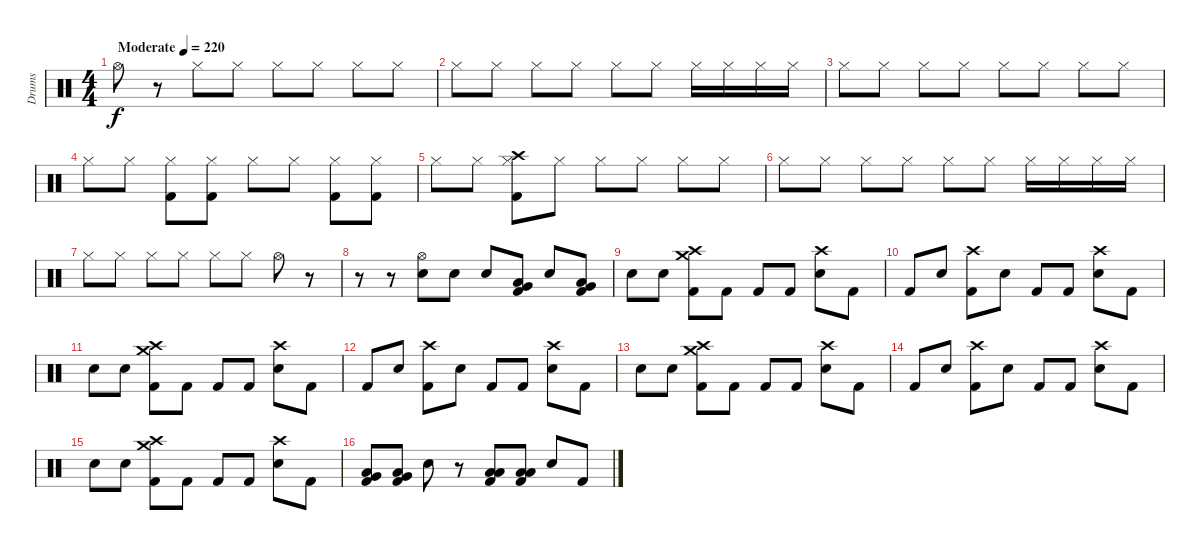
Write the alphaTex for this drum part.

\track ("Drums" "Drums") {instrument percussion}
\staff {score}
\articulation defaults
\ts (4 4)
\tempo (220 "Moderate")
\clef neutral
\ks c "Hi-Hat (open)".8{dy f}
r.8 "Hi-Hat (closed)".8 "Hi-Hat (closed)".8 "Hi-Hat (closed)".8 "Hi-Hat (closed)".8 "Hi-Hat (closed)".8 "Hi-Hat (closed)".8 |
"Hi-Hat (closed)".8 "Hi-Hat (closed)".8 "Hi-Hat (closed)".8 "Hi-Hat (closed)".8 "Hi-Hat (closed)".8 "Hi-Hat (closed)".8 "Hi-Hat (closed)".16 "Hi-Hat (closed)".16 "Hi-Hat (closed)".16 "Hi-Hat (closed)".16 |
"Hi-Hat (closed)".8 "Hi-Hat (closed)".8 "Hi-Hat (closed)".8 "Hi-Hat (closed)".8 "Hi-Hat (closed)".8 "Hi-Hat (closed)".8 "Hi-Hat (closed)".8 "Hi-Hat (closed)".8 |
"Hi-Hat (closed)".8 "Hi-Hat (closed)".8 ("Hi-Hat (closed)" "Kick (hit) 2").8 ("Hi-Hat (closed)" "Kick (hit) 2").8 "Hi-Hat (closed)".8 "Hi-Hat (closed)".8 ("Hi-Hat (closed)" "Kick (hit) 2").8 ("Hi-Hat (closed)" "Kick (hit) 2").8 |
"Hi-Hat (closed)".8 "Hi-Hat (closed)".8 ("Crash high (hit)" "Hi-Hat (closed)" "Kick (hit) 2").8 "Hi-Hat (closed)".8 "Hi-Hat (closed)".8 "Hi-Hat (closed)".8 "Hi-Hat (closed)".8 "Hi-Hat (closed)".8 |
"Hi-Hat (closed)".8 "Hi-Hat (closed)".8 "Hi-Hat (closed)".8 "Hi-Hat (closed)".8 "Hi-Hat (closed)".8 "Hi-Hat (closed)".8 "Hi-Hat (closed)".16 "Hi-Hat (closed)".16 "Hi-Hat (closed)".16 "Hi-Hat (closed)".16 |
"Hi-Hat (closed)".8 "Hi-Hat (closed)".8 "Hi-Hat (closed)".8 "Hi-Hat (closed)".8 "Hi-Hat (closed)".8 "Hi-Hat (closed)".8 "Hi-Hat (open)".8 r.8 |
r.8 r.8 ("Hi-Hat (open)" "Electric Snare (hit)").8 "Electric Snare (hit)".8 "Electric Snare (hit)".8 ("Kick (hit) 2" "Low Floor Tom (hit)" "Very Low Tom (hit)").8 "Electric Snare (hit)".8 ("Kick (hit) 2" "Low Floor Tom (hit)" "Very Low Tom (hit)").8 |
"Electric Snare (hit)".8 "Electric Snare (hit)".8 ("Crash high (hit)" "Crash medium (hit)" "Kick (hit) 2").8 "Kick (hit) 2".8 "Kick (hit) 2".8 "Kick (hit) 2".8 ("Crash high (hit)" "Electric Snare (hit)").8 "Kick (hit) 2".8 |
"Kick (hit) 2".8 "Electric Snare (hit)".8 ("Crash high (hit)" "Kick (hit) 2").8 "Electric Snare (hit)".8 "Kick (hit) 2".8 "Kick (hit) 2".8 ("Crash high (hit)" "Electric Snare (hit)").8 "Kick (hit) 2".8 |
"Electric Snare (hit)".8 "Electric Snare (hit)".8 ("Crash high (hit)" "Crash medium (hit)" "Kick (hit) 2").8 "Kick (hit) 2".8 "Kick (hit) 2".8 "Kick (hit) 2".8 ("Crash high (hit)" "Electric Snare (hit)").8 "Kick (hit) 2".8 |
"Kick (hit) 2".8 "Electric Snare (hit)".8 ("Crash high (hit)" "Kick (hit) 2").8 "Electric Snare (hit)".8 "Kick (hit) 2".8 "Kick (hit) 2".8 ("Crash high (hit)" "Electric Snare (hit)").8 "Kick (hit) 2".8 |
"Electric Snare (hit)".8 "Electric Snare (hit)".8 ("Crash high (hit)" "Crash medium (hit)" "Kick (hit) 2").8 "Kick (hit) 2".8 "Kick (hit) 2".8 "Kick (hit) 2".8 ("Crash high (hit)" "Electric Snare (hit)").8 "Kick (hit) 2".8 |
"Kick (hit) 2".8 "Electric Snare (hit)".8 ("Crash high (hit)" "Kick (hit) 2").8 "Electric Snare (hit)".8 "Kick (hit) 2".8 "Kick (hit) 2".8 ("Crash high (hit)" "Electric Snare (hit)").8 "Kick (hit) 2".8 |
"Electric Snare (hit)".8 "Electric Snare (hit)".8 ("Crash high (hit)" "Crash medium (hit)" "Kick (hit) 2").8 "Kick (hit) 2".8 "Kick (hit) 2".8 "Kick (hit) 2".8 ("Crash high (hit)" "Electric Snare (hit)").8 "Kick (hit) 2".8 |
("Very Low Tom (hit)" "Low Tom (hit)" "Kick (hit) 2").8 ("Very Low Tom (hit)" "Low Tom (hit)" "Kick (hit) 2").8 "Electric Snare (hit)".8 r.8 ("Low Floor Tom (hit)" "Low Tom (hit)" "Kick (hit) 2").8 ("Low Floor Tom (hit)" "Low Tom (hit)" "Kick (hit) 2").8 "Electric Snare (hit)".8 "Kick (hit) 2".8
